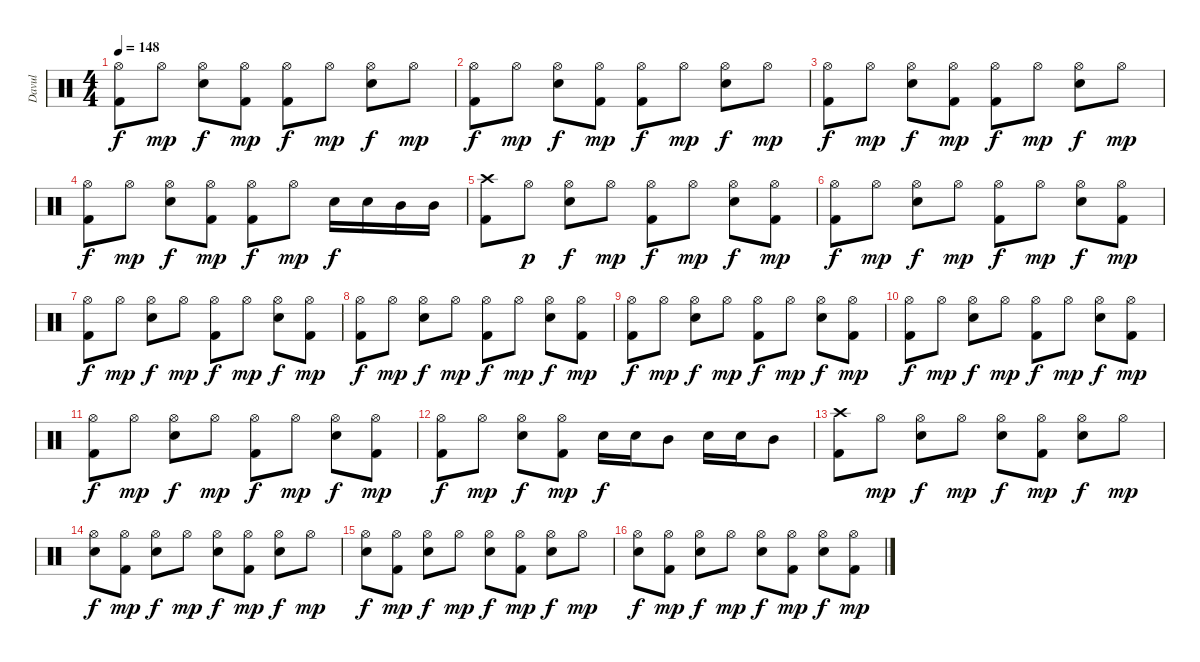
\track ("Davul" "Davul") {instrument percussion}
\staff {score}
\articulation defaults
\ts (4 4)
\tempo 148
\clef neutral
\ks c
("Hi-Hat (open)" "Kick (hit) 2").8{dy f} "Hi-Hat (open)".8{dy mp} ("Hi-Hat (open)" "Electric Snare (hit)").8{dy f} ("Hi-Hat (open)" "Kick (hit) 2").8{dy mp} ("Hi-Hat (open)" "Kick (hit) 2").8{dy f} "Hi-Hat (open)".8{dy mp} ("Hi-Hat (open)" "Electric Snare (hit)").8{dy f} "Hi-Hat (open)".8{dy mp} |
("Hi-Hat (open)" "Kick (hit) 2").8{dy f} "Hi-Hat (open)".8{dy mp} ("Hi-Hat (open)" "Electric Snare (hit)").8{dy f} ("Hi-Hat (open)" "Kick (hit) 2").8{dy mp} ("Hi-Hat (open)" "Kick (hit) 2").8{dy f} "Hi-Hat (open)".8{dy mp} ("Hi-Hat (open)" "Electric Snare (hit)").8{dy f} "Hi-Hat (open)".8{dy mp} |
("Hi-Hat (open)" "Kick (hit) 2").8{dy f} "Hi-Hat (open)".8{dy mp} ("Hi-Hat (open)" "Electric Snare (hit)").8{dy f} ("Hi-Hat (open)" "Kick (hit) 2").8{dy mp} ("Hi-Hat (open)" "Kick (hit) 2").8{dy f} "Hi-Hat (open)".8{dy mp} ("Hi-Hat (open)" "Electric Snare (hit)").8{dy f} "Hi-Hat (open)".8{dy mp} |
("Hi-Hat (open)" "Kick (hit) 2").8{dy f} "Hi-Hat (open)".8{dy mp} ("Hi-Hat (open)" "Electric Snare (hit)").8{dy f} ("Hi-Hat (open)" "Kick (hit) 2").8{dy mp} ("Hi-Hat (open)" "Kick (hit) 2").8{dy f} "Hi-Hat (open)".8{dy mp} "Electric Snare (hit)".16{dy f} "Electric Snare (hit)".16 "Mid Tom (hit)".16 "Mid Tom (hit)".16 |
("Crash high (hit)" "Kick (hit) 2").8 "Hi-Hat (open)".8{dy p} ("Hi-Hat (open)" "Electric Snare (hit)").8{dy f} "Hi-Hat (open)".8{dy mp} ("Hi-Hat (open)" "Kick (hit) 2").8{dy f} "Hi-Hat (open)".8{dy mp} ("Hi-Hat (open)" "Electric Snare (hit)").8{dy f} ("Hi-Hat (open)" "Kick (hit) 2").8{dy mp} |
("Hi-Hat (open)" "Kick (hit) 2").8{dy f} "Hi-Hat (open)".8{dy mp} ("Hi-Hat (open)" "Electric Snare (hit)").8{dy f} "Hi-Hat (open)".8{dy mp} ("Hi-Hat (open)" "Kick (hit) 2").8{dy f} "Hi-Hat (open)".8{dy mp} ("Hi-Hat (open)" "Electric Snare (hit)").8{dy f} ("Hi-Hat (open)" "Kick (hit) 2").8{dy mp} |
("Hi-Hat (open)" "Kick (hit) 2").8{dy f} "Hi-Hat (open)".8{dy mp} ("Hi-Hat (open)" "Electric Snare (hit)").8{dy f} "Hi-Hat (open)".8{dy mp} ("Hi-Hat (open)" "Kick (hit) 2").8{dy f} "Hi-Hat (open)".8{dy mp} ("Hi-Hat (open)" "Electric Snare (hit)").8{dy f} ("Hi-Hat (open)" "Kick (hit) 2").8{dy mp} |
("Hi-Hat (open)" "Kick (hit) 2").8{dy f} "Hi-Hat (open)".8{dy mp} ("Hi-Hat (open)" "Electric Snare (hit)").8{dy f} "Hi-Hat (open)".8{dy mp} ("Hi-Hat (open)" "Kick (hit) 2").8{dy f} "Hi-Hat (open)".8{dy mp} ("Hi-Hat (open)" "Electric Snare (hit)").8{dy f} ("Hi-Hat (open)" "Kick (hit) 2").8{dy mp} |
("Hi-Hat (open)" "Kick (hit) 2").8{dy f} "Hi-Hat (open)".8{dy mp} ("Hi-Hat (open)" "Electric Snare (hit)").8{dy f} "Hi-Hat (open)".8{dy mp} ("Hi-Hat (open)" "Kick (hit) 2").8{dy f} "Hi-Hat (open)".8{dy mp} ("Hi-Hat (open)" "Electric Snare (hit)").8{dy f} ("Hi-Hat (open)" "Kick (hit) 2").8{dy mp} |
("Hi-Hat (open)" "Kick (hit) 2").8{dy f} "Hi-Hat (open)".8{dy mp} ("Hi-Hat (open)" "Electric Snare (hit)").8{dy f} "Hi-Hat (open)".8{dy mp} ("Hi-Hat (open)" "Kick (hit) 2").8{dy f} "Hi-Hat (open)".8{dy mp} ("Hi-Hat (open)" "Electric Snare (hit)").8{dy f} ("Hi-Hat (open)" "Kick (hit) 2").8{dy mp} |
("Hi-Hat (open)" "Kick (hit) 2").8{dy f} "Hi-Hat (open)".8{dy mp} ("Hi-Hat (open)" "Electric Snare (hit)").8{dy f} "Hi-Hat (open)".8{dy mp} ("Hi-Hat (open)" "Kick (hit) 2").8{dy f} "Hi-Hat (open)".8{dy mp} ("Hi-Hat (open)" "Electric Snare (hit)").8{dy f} ("Hi-Hat (open)" "Kick (hit) 2").8{dy mp} |
("Hi-Hat (open)" "Kick (hit) 2").8{dy f} "Hi-Hat (open)".8{dy mp} ("Hi-Hat (open)" "Electric Snare (hit)").8{dy f} ("Hi-Hat (open)" "Kick (hit) 2").8{dy mp} "Electric Snare (hit)".16{dy f} "Electric Snare (hit)".16 "Mid Tom (hit)".8 "Electric Snare (hit)".16 "Electric Snare (hit)".16 "Mid Tom (hit)".8 |
("Crash high (hit)" "Kick (hit) 2").8 "Hi-Hat (open)".8{dy mp} ("Hi-Hat (open)" "Electric Snare (hit)").8{dy f} "Hi-Hat (open)".8{dy mp} ("Hi-Hat (open)" "Electric Snare (hit)").8{dy f} ("Hi-Hat (open)" "Kick (hit) 2").8{dy mp} ("Hi-Hat (open)" "Electric Snare (hit)").8{dy f} "Hi-Hat (open)".8{dy mp} |
("Hi-Hat (open)" "Electric Snare (hit)").8{dy f} ("Hi-Hat (open)" "Kick (hit) 2").8{dy mp} ("Hi-Hat (open)" "Electric Snare (hit)").8{dy f} "Hi-Hat (open)".8{dy mp} ("Hi-Hat (open)" "Electric Snare (hit)").8{dy f} ("Hi-Hat (open)" "Kick (hit) 2").8{dy mp} ("Hi-Hat (open)" "Electric Snare (hit)").8{dy f} "Hi-Hat (open)".8{dy mp} |
("Hi-Hat (open)" "Electric Snare (hit)").8{dy f} ("Hi-Hat (open)" "Kick (hit) 2").8{dy mp} ("Hi-Hat (open)" "Electric Snare (hit)").8{dy f} "Hi-Hat (open)".8{dy mp} ("Hi-Hat (open)" "Electric Snare (hit)").8{dy f} ("Hi-Hat (open)" "Kick (hit) 2").8{dy mp} ("Hi-Hat (open)" "Electric Snare (hit)").8{dy f} "Hi-Hat (open)".8{dy mp} |
("Hi-Hat (open)" "Electric Snare (hit)").8{dy f} ("Hi-Hat (open)" "Kick (hit) 2").8{dy mp} ("Hi-Hat (open)" "Electric Snare (hit)").8{dy f} "Hi-Hat (open)".8{dy mp} ("Hi-Hat (open)" "Electric Snare (hit)").8{dy f} ("Hi-Hat (open)" "Kick (hit) 2").8{dy mp} ("Hi-Hat (open)" "Electric Snare (hit)").8{dy f} ("Hi-Hat (open)" "Kick (hit) 2").8{dy mp}
